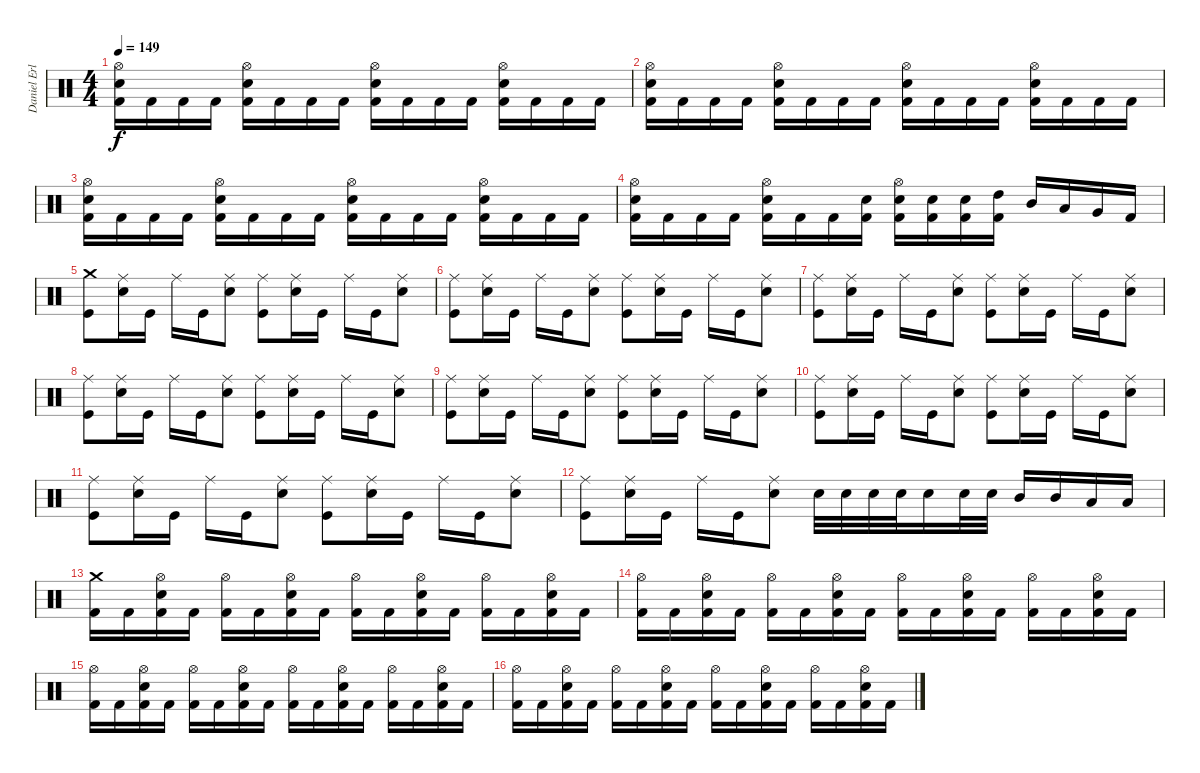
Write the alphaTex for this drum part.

\track ("Daniel Erlandsson" "Daniel Erl") {instrument percussion}
\staff {score}
\articulation defaults
\ts (4 4)
\tempo 149
\clef neutral
\ks c
("Kick (hit) 2" "Electric Snare (hit)" "Hi-Hat (open)").16{dy f} "Kick (hit) 2".16 "Kick (hit) 2".16 "Kick (hit) 2".16 ("Kick (hit) 2" "Electric Snare (hit)" "Hi-Hat (open)").16 "Kick (hit) 2".16 "Kick (hit) 2".16 "Kick (hit) 2".16 ("Kick (hit) 2" "Electric Snare (hit)" "Hi-Hat (open)").16 "Kick (hit) 2".16 "Kick (hit) 2".16 "Kick (hit) 2".16 ("Kick (hit) 2" "Electric Snare (hit)" "Hi-Hat (open)").16 "Kick (hit) 2".16 "Kick (hit) 2".16 "Kick (hit) 2".16 |
("Kick (hit) 2" "Electric Snare (hit)" "Hi-Hat (open)").16 "Kick (hit) 2".16 "Kick (hit) 2".16 "Kick (hit) 2".16 ("Kick (hit) 2" "Electric Snare (hit)" "Hi-Hat (open)").16 "Kick (hit) 2".16 "Kick (hit) 2".16 "Kick (hit) 2".16 ("Kick (hit) 2" "Electric Snare (hit)" "Hi-Hat (open)").16 "Kick (hit) 2".16 "Kick (hit) 2".16 "Kick (hit) 2".16 ("Kick (hit) 2" "Electric Snare (hit)" "Hi-Hat (open)").16 "Kick (hit) 2".16 "Kick (hit) 2".16 "Kick (hit) 2".16 |
("Kick (hit) 2" "Electric Snare (hit)" "Hi-Hat (open)").16 "Kick (hit) 2".16 "Kick (hit) 2".16 "Kick (hit) 2".16 ("Kick (hit) 2" "Electric Snare (hit)" "Hi-Hat (open)").16 "Kick (hit) 2".16 "Kick (hit) 2".16 "Kick (hit) 2".16 ("Kick (hit) 2" "Electric Snare (hit)" "Hi-Hat (open)").16 "Kick (hit) 2".16 "Kick (hit) 2".16 "Kick (hit) 2".16 ("Kick (hit) 2" "Electric Snare (hit)" "Hi-Hat (open)").16 "Kick (hit) 2".16 "Kick (hit) 2".16 "Kick (hit) 2".16 |
("Kick (hit) 2" "Electric Snare (hit)" "Hi-Hat (open)").16 "Kick (hit) 2".16 "Kick (hit) 2".16 "Kick (hit) 2".16 ("Kick (hit) 2" "Electric Snare (hit)" "Hi-Hat (open)").16 "Kick (hit) 2".16 "Kick (hit) 2".16 ("Kick (hit) 2" "Electric Snare (hit)").16 ("Kick (hit) 2" "Electric Snare (hit)" "Hi-Hat (open)").16 ("Kick (hit) 2" "Electric Snare (hit)").16 ("Kick (hit) 2" "Electric Snare (hit)").16 ("Kick (hit) 2" "High Tom (hit)").16 "Mid Tom (hit)".16 "Low Tom (hit)".16 "Very Low Tom (hit)".16 "Kick (hit) 2".16 |
("Kick (hit)" "Crash medium (hit)").8 ("Electric Snare (hit)" "Ride (middle)").16 "Kick (hit)".16 "Ride (middle)".16 "Kick (hit)".16 ("Electric Snare (hit)" "Ride (middle)").8 ("Kick (hit)" "Ride (middle)").8 ("Electric Snare (hit)" "Ride (middle)").16 "Kick (hit)".16 "Ride (middle)".16 "Kick (hit)".16 ("Electric Snare (hit)" "Ride (middle)").8 |
("Kick (hit)" "Ride (middle)").8 ("Electric Snare (hit)" "Ride (middle)").16 "Kick (hit)".16 "Ride (middle)".16 "Kick (hit)".16 ("Electric Snare (hit)" "Ride (middle)").8 ("Kick (hit)" "Ride (middle)").8 ("Electric Snare (hit)" "Ride (middle)").16 "Kick (hit)".16 "Ride (middle)".16 "Kick (hit)".16 ("Electric Snare (hit)" "Ride (middle)").8 |
("Kick (hit)" "Ride (middle)").8 ("Electric Snare (hit)" "Ride (middle)").16 "Kick (hit)".16 "Ride (middle)".16 "Kick (hit)".16 ("Electric Snare (hit)" "Ride (middle)").8 ("Kick (hit)" "Ride (middle)").8 ("Electric Snare (hit)" "Ride (middle)").16 "Kick (hit)".16 "Ride (middle)".16 "Kick (hit)".16 ("Electric Snare (hit)" "Ride (middle)").8 |
("Kick (hit)" "Ride (middle)").8 ("Electric Snare (hit)" "Ride (middle)").16 "Kick (hit)".16 "Ride (middle)".16 "Kick (hit)".16 ("Electric Snare (hit)" "Ride (middle)").8 ("Kick (hit)" "Ride (middle)").8 ("Electric Snare (hit)" "Ride (middle)").16 "Kick (hit)".16 "Ride (middle)".16 "Kick (hit)".16 ("Electric Snare (hit)" "Ride (middle)").8 |
("Kick (hit)" "Ride (middle)").8 ("Electric Snare (hit)" "Ride (middle)").16 "Kick (hit)".16 "Ride (middle)".16 "Kick (hit)".16 ("Electric Snare (hit)" "Ride (middle)").8 ("Kick (hit)" "Ride (middle)").8 ("Electric Snare (hit)" "Ride (middle)").16 "Kick (hit)".16 "Ride (middle)".16 "Kick (hit)".16 ("Electric Snare (hit)" "Ride (middle)").8 |
("Kick (hit)" "Ride (middle)").8 ("Electric Snare (hit)" "Ride (middle)").16 "Kick (hit)".16 "Ride (middle)".16 "Kick (hit)".16 ("Electric Snare (hit)" "Ride (middle)").8 ("Kick (hit)" "Ride (middle)").8 ("Electric Snare (hit)" "Ride (middle)").16 "Kick (hit)".16 "Ride (middle)".16 "Kick (hit)".16 ("Electric Snare (hit)" "Ride (middle)").8 |
("Kick (hit)" "Ride (middle)").8 ("Electric Snare (hit)" "Ride (middle)").16 "Kick (hit)".16 "Ride (middle)".16 "Kick (hit)".16 ("Electric Snare (hit)" "Ride (middle)").8 ("Kick (hit)" "Ride (middle)").8 ("Electric Snare (hit)" "Ride (middle)").16 "Kick (hit)".16 "Ride (middle)".16 "Kick (hit)".16 ("Electric Snare (hit)" "Ride (middle)").8 |
("Kick (hit)" "Ride (middle)").8 ("Electric Snare (hit)" "Ride (middle)").16 "Kick (hit)".16 "Ride (middle)".16 "Kick (hit)".16 ("Electric Snare (hit)" "Ride (middle)").8 "Electric Snare (hit)".32 "Electric Snare (hit)".32 "Electric Snare (hit)".32 "Electric Snare (hit)".32 "Electric Snare (hit)".16 "Electric Snare (hit)".32 "Electric Snare (hit)".32 "Mid Tom (hit)".16 "Mid Tom (hit)".16 "Low Tom (hit)".16 "Low Tom (hit)".16 |
("Kick (hit) 2" "Crash medium (hit)").16 "Kick (hit) 2".16 ("Kick (hit) 2" "Electric Snare (hit)" "Hi-Hat (open)").16 "Kick (hit) 2".16 ("Kick (hit) 2" "Hi-Hat (open)").16 "Kick (hit) 2".16 ("Kick (hit) 2" "Electric Snare (hit)" "Hi-Hat (open)").16 "Kick (hit) 2".16 ("Kick (hit) 2" "Hi-Hat (open)").16 "Kick (hit) 2".16 ("Kick (hit) 2" "Electric Snare (hit)" "Hi-Hat (open)").16 "Kick (hit) 2".16 ("Kick (hit) 2" "Hi-Hat (open)").16 "Kick (hit) 2".16 ("Kick (hit) 2" "Electric Snare (hit)" "Hi-Hat (open)").16 "Kick (hit) 2".16 |
("Kick (hit) 2" "Hi-Hat (open)").16 "Kick (hit) 2".16 ("Kick (hit) 2" "Electric Snare (hit)" "Hi-Hat (open)").16 "Kick (hit) 2".16 ("Kick (hit) 2" "Hi-Hat (open)").16 "Kick (hit) 2".16 ("Kick (hit) 2" "Electric Snare (hit)" "Hi-Hat (open)").16 "Kick (hit) 2".16 ("Kick (hit) 2" "Hi-Hat (open)").16 "Kick (hit) 2".16 ("Kick (hit) 2" "Electric Snare (hit)" "Hi-Hat (open)").16 "Kick (hit) 2".16 ("Kick (hit) 2" "Hi-Hat (open)").16 "Kick (hit) 2".16 ("Kick (hit) 2" "Electric Snare (hit)" "Hi-Hat (open)").16 "Kick (hit) 2".16 |
("Kick (hit) 2" "Hi-Hat (open)").16 "Kick (hit) 2".16 ("Kick (hit) 2" "Electric Snare (hit)" "Hi-Hat (open)").16 "Kick (hit) 2".16 ("Kick (hit) 2" "Hi-Hat (open)").16 "Kick (hit) 2".16 ("Kick (hit) 2" "Electric Snare (hit)" "Hi-Hat (open)").16 "Kick (hit) 2".16 ("Kick (hit) 2" "Hi-Hat (open)").16 "Kick (hit) 2".16 ("Kick (hit) 2" "Electric Snare (hit)" "Hi-Hat (open)").16 "Kick (hit) 2".16 ("Kick (hit) 2" "Hi-Hat (open)").16 "Kick (hit) 2".16 ("Kick (hit) 2" "Electric Snare (hit)" "Hi-Hat (open)").16 "Kick (hit) 2".16 |
("Kick (hit) 2" "Hi-Hat (open)").16 "Kick (hit) 2".16 ("Kick (hit) 2" "Electric Snare (hit)" "Hi-Hat (open)").16 "Kick (hit) 2".16 ("Kick (hit) 2" "Hi-Hat (open)").16 "Kick (hit) 2".16 ("Kick (hit) 2" "Electric Snare (hit)" "Hi-Hat (open)").16 "Kick (hit) 2".16 ("Kick (hit) 2" "Hi-Hat (open)").16 "Kick (hit) 2".16 ("Kick (hit) 2" "Electric Snare (hit)" "Hi-Hat (open)").16 "Kick (hit) 2".16 ("Kick (hit) 2" "Hi-Hat (open)").16 "Kick (hit) 2".16 ("Kick (hit) 2" "Electric Snare (hit)" "Hi-Hat (open)").16 "Kick (hit) 2".16
